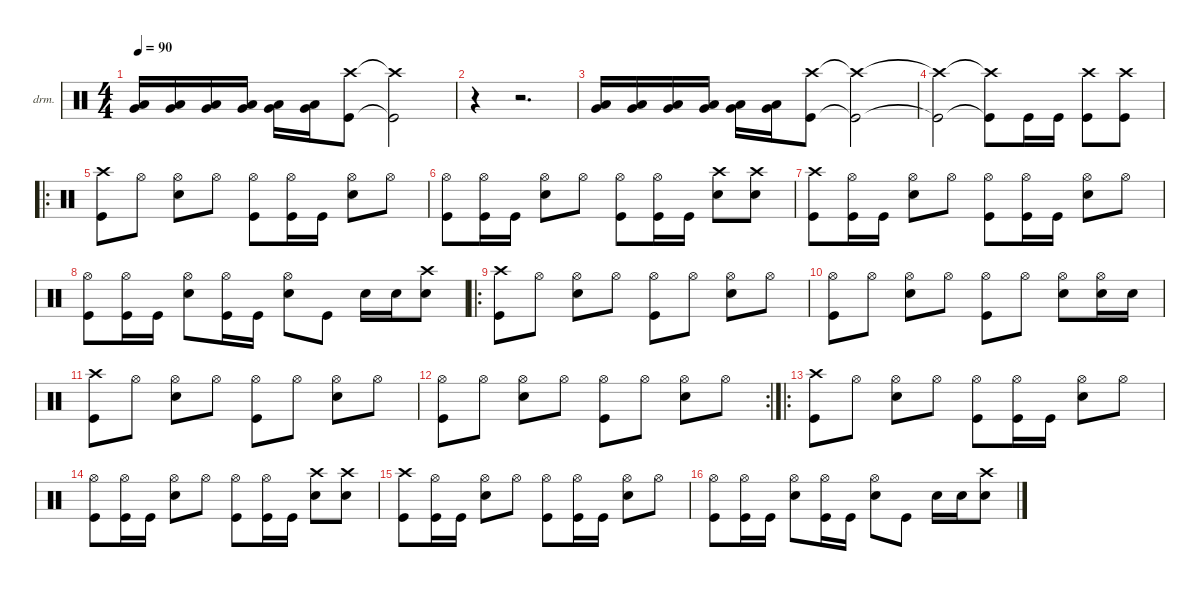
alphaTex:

\defaultSystemsLayout 4
\hideDynamics
\bracketExtendMode nobrackets
\firstSystemTrackNameOrientation horizontal
\otherSystemsTrackNameOrientation horizontal
\track ("Percussion" "drm.") {instrument percussion}
\staff {score}
\articulation defaults
\ts (4 4)
\beaming (8 2 2 2 2)
\tempo 90
\clef neutral
\ks c
("Very Low Tom (hit)" "Low Floor Tom (hit)").16{dy f beam Up} ("Very Low Tom (hit)" "Low Floor Tom (hit)").16{beam Up} ("Very Low Tom (hit)" "Low Floor Tom (hit)").16{beam Up} ("Very Low Tom (hit)" "Low Floor Tom (hit)").16{beam Up} ("Very Low Tom (hit)" "Low Floor Tom (hit)").16{beam Down} ("Very Low Tom (hit)" "Low Floor Tom (hit)").16{beam Down} ("Crash high (hit)" "Kick (hit)").8{beam Down} ("Crash high (hit)"{t} "Kick (hit)"{t}).2{beam Down} |
r.4{beam Down} r.2{d beam Down} |
("Very Low Tom (hit)" "Low Floor Tom (hit)").16{beam Up} ("Very Low Tom (hit)" "Low Floor Tom (hit)").16{beam Up} ("Very Low Tom (hit)" "Low Floor Tom (hit)").16{beam Up} ("Very Low Tom (hit)" "Low Floor Tom (hit)").16{beam Up} ("Very Low Tom (hit)" "Low Floor Tom (hit)").16{beam Down} ("Very Low Tom (hit)" "Low Floor Tom (hit)").16{beam Down} ("Crash high (hit)" "Kick (hit)").8{beam Down} ("Crash high (hit)"{t} "Kick (hit)"{t}).2{beam Down} |
("Crash high (hit)"{t} "Kick (hit)"{t}).2{beam Down} ("Crash high (hit)"{t} "Kick (hit)"{t}).8{beam Down} "Kick (hit)".16{beam Down} "Kick (hit)".16{beam Down} ("Crash high (hit)" "Kick (hit)").8{beam Down} ("Crash high (hit)" "Kick (hit)").8{beam Down} |
\ro
("Crash high (hit)" "Kick (hit)").8{beam Down} "Hi-Hat (open)".8{beam Down} ("Hi-Hat (open)" "Snare (hit) 2").8{beam Down} "Hi-Hat (open)".8{beam Down} ("Hi-Hat (open)" "Kick (hit)").8{beam Down} ("Hi-Hat (open)" "Kick (hit)").16{beam Down} "Kick (hit)".16{beam Down} ("Hi-Hat (open)" "Snare (hit) 2").8{beam Down} "Hi-Hat (open)".8{beam Down} |
("Hi-Hat (open)" "Kick (hit)").8{beam Down} ("Hi-Hat (open)" "Kick (hit)").16{beam Down} "Kick (hit)".16{beam Down} ("Hi-Hat (open)" "Snare (hit) 2").8{beam Down} "Hi-Hat (open)".8{beam Down} ("Hi-Hat (open)" "Kick (hit)").8{beam Down} ("Hi-Hat (open)" "Kick (hit)").16{beam Down} "Kick (hit)".16{beam Down} ("Crash high (hit)" "Snare (hit) 2").8{beam Down} ("Crash high (hit)" "Snare (hit) 2").8{beam Down} |
("Crash high (hit)" "Kick (hit)").8{beam Down} ("Hi-Hat (open)" "Kick (hit)").16{beam Down} "Kick (hit)".16{beam Down} ("Hi-Hat (open)" "Snare (hit) 2").8{beam Down} "Hi-Hat (open)".8{beam Down} ("Hi-Hat (open)" "Kick (hit)").8{beam Down} ("Hi-Hat (open)" "Kick (hit)").16{beam Down} "Kick (hit)".16{beam Down} ("Hi-Hat (open)" "Snare (hit) 2").8{beam Down} "Hi-Hat (open)".8{beam Down} |
("Hi-Hat (open)" "Kick (hit)").8{beam Down} ("Hi-Hat (open)" "Kick (hit)").16{beam Down} "Kick (hit)".16{beam Down} ("Hi-Hat (open)" "Snare (hit) 2").8{beam Down} ("Hi-Hat (open)" "Kick (hit)").16{beam Down} "Kick (hit)".16{beam Down} ("Hi-Hat (open)" "Snare (hit) 2").8{beam Down} "Kick (hit)".8{beam Down} "Snare (hit) 2".16{beam Down} "Snare (hit) 2".16{beam Down} ("Crash high (hit)" "Snare (hit) 2").8{beam Down} |
\ro
("Crash high (hit)" "Kick (hit)").8{beam Down} "Hi-Hat (open)".8{beam Down} ("Hi-Hat (open)" "Snare (hit) 2").8{beam Down} "Hi-Hat (open)".8{beam Down} ("Hi-Hat (open)" "Kick (hit)").8{beam Down} "Hi-Hat (open)".8{beam Down} ("Hi-Hat (open)" "Snare (hit) 2").8{beam Down} "Hi-Hat (open)".8{beam Down} |
("Hi-Hat (open)" "Kick (hit)").8{beam Down} "Hi-Hat (open)".8{beam Down} ("Hi-Hat (open)" "Snare (hit) 2").8{beam Down} "Hi-Hat (open)".8{beam Down} ("Hi-Hat (open)" "Kick (hit)").8{beam Down} "Hi-Hat (open)".8{beam Down} ("Hi-Hat (open)" "Snare (hit) 2").8{beam Down} ("Hi-Hat (open)" "Snare (hit) 2").16{beam Down} "Snare (hit) 2".16{beam Down} |
("Crash high (hit)" "Kick (hit)").8{beam Down} "Hi-Hat (open)".8{beam Down} ("Hi-Hat (open)" "Snare (hit) 2").8{beam Down} "Hi-Hat (open)".8{beam Down} ("Hi-Hat (open)" "Kick (hit)").8{beam Down} "Hi-Hat (open)".8{beam Down} ("Hi-Hat (open)" "Snare (hit) 2").8{beam Down} "Hi-Hat (open)".8{beam Down} |
\rc 2
("Hi-Hat (open)" "Kick (hit)").8{beam Down} "Hi-Hat (open)".8{beam Down} ("Hi-Hat (open)" "Snare (hit) 2").8{beam Down} "Hi-Hat (open)".8{beam Down} ("Hi-Hat (open)" "Kick (hit)").8{beam Down} "Hi-Hat (open)".8{beam Down} ("Hi-Hat (open)" "Snare (hit) 2").8{beam Down} "Hi-Hat (open)".8{beam Down} |
\ro
("Crash high (hit)" "Kick (hit)").8{beam Down} "Hi-Hat (open)".8{beam Down} ("Hi-Hat (open)" "Snare (hit) 2").8{beam Down} "Hi-Hat (open)".8{beam Down} ("Hi-Hat (open)" "Kick (hit)").8{beam Down} ("Hi-Hat (open)" "Kick (hit)").16{beam Down} "Kick (hit)".16{beam Down} ("Hi-Hat (open)" "Snare (hit) 2").8{beam Down} "Hi-Hat (open)".8{beam Down} |
("Hi-Hat (open)" "Kick (hit)").8{beam Down} ("Hi-Hat (open)" "Kick (hit)").16{beam Down} "Kick (hit)".16{beam Down} ("Hi-Hat (open)" "Snare (hit) 2").8{beam Down} "Hi-Hat (open)".8{beam Down} ("Hi-Hat (open)" "Kick (hit)").8{beam Down} ("Hi-Hat (open)" "Kick (hit)").16{beam Down} "Kick (hit)".16{beam Down} ("Crash high (hit)" "Snare (hit) 2").8{beam Down} ("Crash high (hit)" "Snare (hit) 2").8{beam Down} |
("Crash high (hit)" "Kick (hit)").8{beam Down} ("Hi-Hat (open)" "Kick (hit)").16{beam Down} "Kick (hit)".16{beam Down} ("Hi-Hat (open)" "Snare (hit) 2").8{beam Down} "Hi-Hat (open)".8{beam Down} ("Hi-Hat (open)" "Kick (hit)").8{beam Down} ("Hi-Hat (open)" "Kick (hit)").16{beam Down} "Kick (hit)".16{beam Down} ("Hi-Hat (open)" "Snare (hit) 2").8{beam Down} "Hi-Hat (open)".8{beam Down} |
("Hi-Hat (open)" "Kick (hit)").8{beam Down} ("Hi-Hat (open)" "Kick (hit)").16{beam Down} "Kick (hit)".16{beam Down} ("Hi-Hat (open)" "Snare (hit) 2").8{beam Down} ("Hi-Hat (open)" "Kick (hit)").16{beam Down} "Kick (hit)".16{beam Down} ("Hi-Hat (open)" "Snare (hit) 2").8{beam Down} "Kick (hit)".8{beam Down} "Snare (hit) 2".16{beam Down} "Snare (hit) 2".16{beam Down} ("Crash high (hit)" "Snare (hit) 2").8{beam Down}
